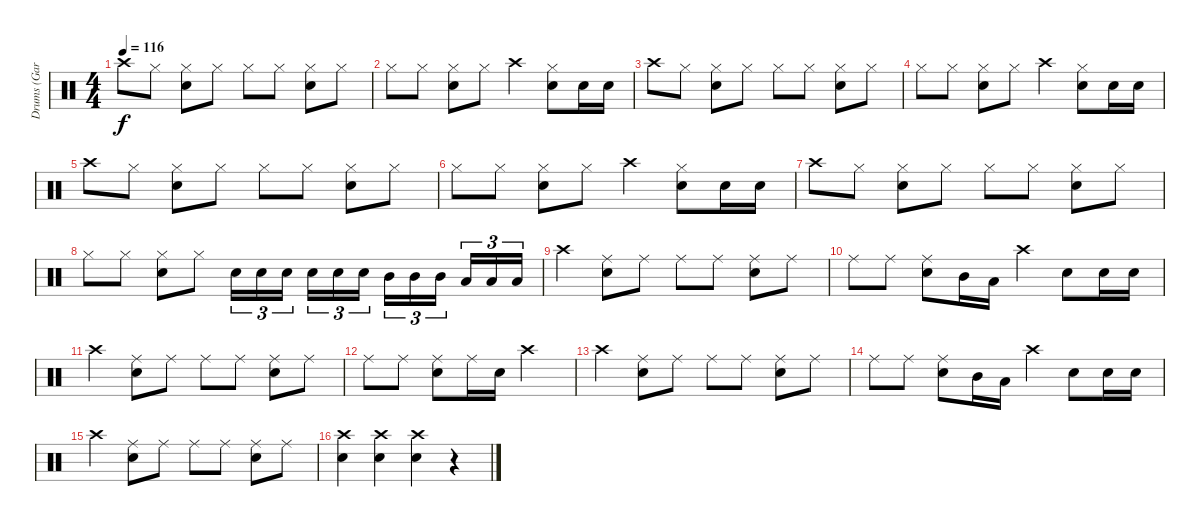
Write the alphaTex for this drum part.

\track ("Drums (Gar Samuelson)" "Drums (Gar") {instrument percussion}
\staff {score}
\articulation defaults
\ts (4 4)
\tempo 116
\clef neutral
\ks c "Crash high (hit)".8{dy f} "Hi-Hat (closed)".8
("Hi-Hat (closed)" "Snare (hit) 2").8 "Hi-Hat (closed)".8 "Hi-Hat (closed)".8 "Hi-Hat (closed)".8 ("Hi-Hat (closed)" "Snare (hit) 2").8 "Hi-Hat (closed)".8 |
"Hi-Hat (closed)".8 "Hi-Hat (closed)".8 ("Hi-Hat (closed)" "Snare (hit) 2").8 "Hi-Hat (closed)".8 "Crash high (hit)".4 ("Hi-Hat (closed)" "Snare (hit) 2").8 "Snare (hit) 2".16 "Snare (hit) 2".16 |
"Crash high (hit)".8 "Hi-Hat (closed)".8 ("Hi-Hat (closed)" "Snare (hit) 2").8 "Hi-Hat (closed)".8 "Hi-Hat (closed)".8 "Hi-Hat (closed)".8 ("Hi-Hat (closed)" "Snare (hit) 2").8 "Hi-Hat (closed)".8 |
"Hi-Hat (closed)".8 "Hi-Hat (closed)".8 ("Hi-Hat (closed)" "Snare (hit) 2").8 "Hi-Hat (closed)".8 "Crash high (hit)".4 ("Hi-Hat (closed)" "Snare (hit) 2").8 "Snare (hit) 2".16 "Snare (hit) 2".16 |
"Crash high (hit)".8 "Hi-Hat (closed)".8 ("Hi-Hat (closed)" "Snare (hit) 2").8 "Hi-Hat (closed)".8 "Hi-Hat (closed)".8 "Hi-Hat (closed)".8 ("Hi-Hat (closed)" "Snare (hit) 2").8 "Hi-Hat (closed)".8 |
"Hi-Hat (closed)".8 "Hi-Hat (closed)".8 ("Hi-Hat (closed)" "Snare (hit) 2").8 "Hi-Hat (closed)".8 "Crash high (hit)".4 ("Hi-Hat (closed)" "Snare (hit) 2").8 "Snare (hit) 2".16 "Snare (hit) 2".16 |
"Crash high (hit)".8 "Hi-Hat (closed)".8 ("Hi-Hat (closed)" "Snare (hit) 2").8 "Hi-Hat (closed)".8 "Hi-Hat (closed)".8 "Hi-Hat (closed)".8 ("Hi-Hat (closed)" "Snare (hit) 2").8 "Hi-Hat (closed)".8 |
"Hi-Hat (closed)".8 "Hi-Hat (closed)".8 ("Hi-Hat (closed)" "Snare (hit) 2").8 "Hi-Hat (closed)".8 "Snare (hit) 2".16{tu (3 2)} "Snare (hit) 2".16{tu (3 2)} "Snare (hit) 2".16{tu (3 2) beam splitsecondary} "Snare (hit) 2".16{tu (3 2)} "Snare (hit) 2".16{tu (3 2)} "Snare (hit) 2".16{tu (3 2)} "Mid Tom (hit)".16{tu (3 2)} "Mid Tom (hit)".16{tu (3 2)} "Mid Tom (hit)".16{tu (3 2) beam splitsecondary} "Low Tom (hit)".16{tu (3 2)} "Low Tom (hit)".16{tu (3 2)} "Low Tom (hit)".16{tu (3 2)} |
"Crash high (hit)".4 ("Ride (middle)" "Snare (hit) 2").8 "Ride (middle)".8 "Ride (middle)".8 "Ride (middle)".8 ("Ride (middle)" "Snare (hit) 2").8 "Ride (middle)".8 |
"Ride (middle)".8 "Ride (middle)".8 ("Ride (middle)" "Snare (hit) 2").8 "Mid Tom (hit)".16 "Low Tom (hit)".16 "Crash high (hit)".4 "Snare (hit) 2".8 "Snare (hit) 2".16 "Snare (hit) 2".16 |
"Crash high (hit)".4 ("Ride (middle)" "Snare (hit) 2").8 "Ride (middle)".8 "Ride (middle)".8 "Ride (middle)".8 ("Ride (middle)" "Snare (hit) 2").8 "Ride (middle)".8 |
"Ride (middle)".8 "Ride (middle)".8 ("Ride (middle)" "Snare (hit) 2").8 "Ride (middle)".16 "Snare (hit) 2".16 "Crash high (hit)".2 |
"Crash high (hit)".4 ("Ride (middle)" "Snare (hit) 2").8 "Ride (middle)".8 "Ride (middle)".8 "Ride (middle)".8 ("Ride (middle)" "Snare (hit) 2").8 "Ride (middle)".8 |
"Ride (middle)".8 "Ride (middle)".8 ("Ride (middle)" "Snare (hit) 2").8 "Mid Tom (hit)".16 "Low Tom (hit)".16 "Crash high (hit)".4 "Snare (hit) 2".8 "Snare (hit) 2".16 "Snare (hit) 2".16 |
"Crash high (hit)".4 ("Ride (middle)" "Snare (hit) 2").8 "Ride (middle)".8 "Ride (middle)".8 "Ride (middle)".8 ("Ride (middle)" "Snare (hit) 2").8 "Ride (middle)".8 |
("Crash high (hit)" "Snare (hit) 2").4 ("Crash high (hit)" "Snare (hit) 2").4 ("Crash high (hit)" "Snare (hit) 2").4 r.4
